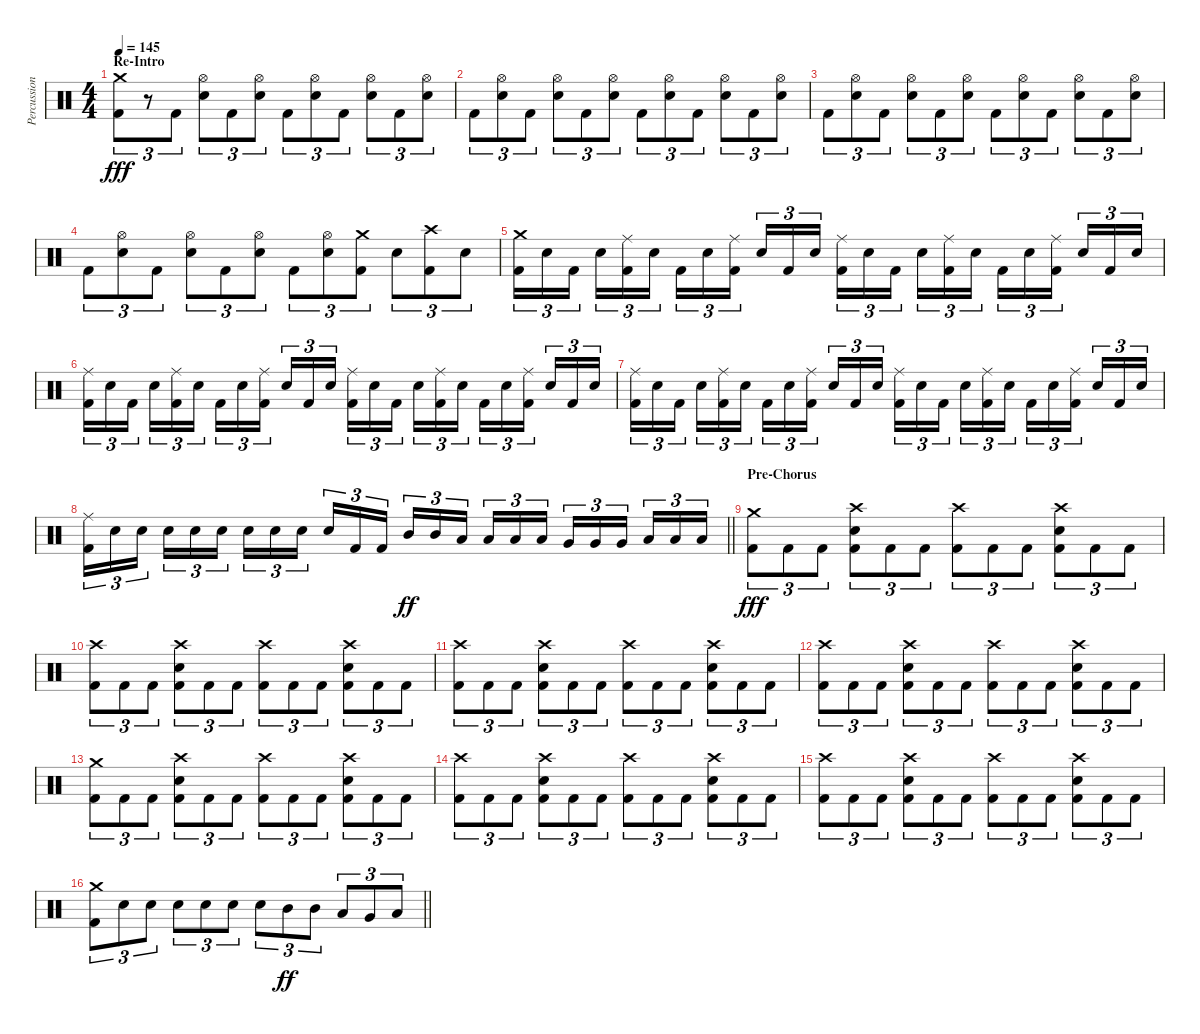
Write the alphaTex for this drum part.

\track ("Percussion" "Percussion") {instrument percussion}
\staff {score}
\articulation defaults
\ts (4 4)
\section ("" "Re-Intro")
\tempo 145
\clef neutral
\ks c
("Crash medium (hit)" "Kick (hit) 2").8{tu (3 2) dy fff} r.8{tu (3 2)} "Kick (hit) 2".8{tu (3 2)} ("Hi-Hat (open)" "Electric Snare (hit)").8{tu (3 2)} "Kick (hit) 2".8{tu (3 2)} ("Hi-Hat (open)" "Electric Snare (hit)").8{tu (3 2)} "Kick (hit) 2".8{tu (3 2)} ("Hi-Hat (open)" "Electric Snare (hit)").8{tu (3 2)} "Kick (hit) 2".8{tu (3 2)} ("Hi-Hat (open)" "Electric Snare (hit)").8{tu (3 2)} "Kick (hit) 2".8{tu (3 2)} ("Hi-Hat (open)" "Electric Snare (hit)").8{tu (3 2)} |
"Kick (hit) 2".8{tu (3 2)} ("Hi-Hat (open)" "Electric Snare (hit)").8{tu (3 2)} "Kick (hit) 2".8{tu (3 2)} ("Hi-Hat (open)" "Electric Snare (hit)").8{tu (3 2)} "Kick (hit) 2".8{tu (3 2)} ("Hi-Hat (open)" "Electric Snare (hit)").8{tu (3 2)} "Kick (hit) 2".8{tu (3 2)} ("Hi-Hat (open)" "Electric Snare (hit)").8{tu (3 2)} "Kick (hit) 2".8{tu (3 2)} ("Hi-Hat (open)" "Electric Snare (hit)").8{tu (3 2)} "Kick (hit) 2".8{tu (3 2)} ("Hi-Hat (open)" "Electric Snare (hit)").8{tu (3 2)} |
"Kick (hit) 2".8{tu (3 2)} ("Hi-Hat (open)" "Electric Snare (hit)").8{tu (3 2)} "Kick (hit) 2".8{tu (3 2)} ("Hi-Hat (open)" "Electric Snare (hit)").8{tu (3 2)} "Kick (hit) 2".8{tu (3 2)} ("Hi-Hat (open)" "Electric Snare (hit)").8{tu (3 2)} "Kick (hit) 2".8{tu (3 2)} ("Hi-Hat (open)" "Electric Snare (hit)").8{tu (3 2)} "Kick (hit) 2".8{tu (3 2)} ("Hi-Hat (open)" "Electric Snare (hit)").8{tu (3 2)} "Kick (hit) 2".8{tu (3 2)} ("Hi-Hat (open)" "Electric Snare (hit)").8{tu (3 2)} |
"Kick (hit) 2".8{tu (3 2)} ("Hi-Hat (open)" "Electric Snare (hit)").8{tu (3 2)} "Kick (hit) 2".8{tu (3 2)} ("Hi-Hat (open)" "Electric Snare (hit)").8{tu (3 2)} "Kick (hit) 2".8{tu (3 2)} ("Hi-Hat (open)" "Electric Snare (hit)").8{tu (3 2)} "Kick (hit) 2".8{tu (3 2)} ("Hi-Hat (open)" "Electric Snare (hit)").8{tu (3 2)} ("Crash medium (hit)" "Kick (hit) 2").8{tu (3 2)} "Electric Snare (hit)".8{tu (3 2)} ("Crash high (hit)" "Kick (hit) 2").8{tu (3 2)} "Electric Snare (hit)".8{tu (3 2)} |
("Crash medium (hit)" "Kick (hit) 2").16{tu (3 2)} "Electric Snare (hit)".16{tu (3 2)} "Kick (hit) 2".16{tu (3 2) beam splitsecondary} "Electric Snare (hit)".16{tu (3 2)} ("Ride (middle)" "Kick (hit) 2").16{tu (3 2)} "Electric Snare (hit)".16{tu (3 2)} "Kick (hit) 2".16{tu (3 2)} "Electric Snare (hit)".16{tu (3 2)} ("Ride (middle)" "Kick (hit) 2").16{tu (3 2) beam splitsecondary} "Electric Snare (hit)".16{tu (3 2)} "Kick (hit) 2".16{tu (3 2)} "Electric Snare (hit)".16{tu (3 2)} ("Ride (middle)" "Kick (hit) 2").16{tu (3 2)} "Electric Snare (hit)".16{tu (3 2)} "Kick (hit) 2".16{tu (3 2) beam splitsecondary} "Electric Snare (hit)".16{tu (3 2)} ("Ride (middle)" "Kick (hit) 2").16{tu (3 2)} "Electric Snare (hit)".16{tu (3 2)} "Kick (hit) 2".16{tu (3 2)} "Electric Snare (hit)".16{tu (3 2)} ("Ride (middle)" "Kick (hit) 2").16{tu (3 2) beam splitsecondary} "Electric Snare (hit)".16{tu (3 2)} "Kick (hit) 2".16{tu (3 2)} "Electric Snare (hit)".16{tu (3 2)} |
("Ride (middle)" "Kick (hit) 2").16{tu (3 2)} "Electric Snare (hit)".16{tu (3 2)} "Kick (hit) 2".16{tu (3 2) beam splitsecondary} "Electric Snare (hit)".16{tu (3 2)} ("Ride (middle)" "Kick (hit) 2").16{tu (3 2)} "Electric Snare (hit)".16{tu (3 2)} "Kick (hit) 2".16{tu (3 2)} "Electric Snare (hit)".16{tu (3 2)} ("Ride (middle)" "Kick (hit) 2").16{tu (3 2) beam splitsecondary} "Electric Snare (hit)".16{tu (3 2)} "Kick (hit) 2".16{tu (3 2)} "Electric Snare (hit)".16{tu (3 2)} ("Ride (middle)" "Kick (hit) 2").16{tu (3 2)} "Electric Snare (hit)".16{tu (3 2)} "Kick (hit) 2".16{tu (3 2) beam splitsecondary} "Electric Snare (hit)".16{tu (3 2)} ("Ride (middle)" "Kick (hit) 2").16{tu (3 2)} "Electric Snare (hit)".16{tu (3 2)} "Kick (hit) 2".16{tu (3 2)} "Electric Snare (hit)".16{tu (3 2)} ("Ride (middle)" "Kick (hit) 2").16{tu (3 2) beam splitsecondary} "Electric Snare (hit)".16{tu (3 2)} "Kick (hit) 2".16{tu (3 2)} "Electric Snare (hit)".16{tu (3 2)} |
("Ride (middle)" "Kick (hit) 2").16{tu (3 2)} "Electric Snare (hit)".16{tu (3 2)} "Kick (hit) 2".16{tu (3 2) beam splitsecondary} "Electric Snare (hit)".16{tu (3 2)} ("Ride (middle)" "Kick (hit) 2").16{tu (3 2)} "Electric Snare (hit)".16{tu (3 2)} "Kick (hit) 2".16{tu (3 2)} "Electric Snare (hit)".16{tu (3 2)} ("Ride (middle)" "Kick (hit) 2").16{tu (3 2) beam splitsecondary} "Electric Snare (hit)".16{tu (3 2)} "Kick (hit) 2".16{tu (3 2)} "Electric Snare (hit)".16{tu (3 2)} ("Ride (middle)" "Kick (hit) 2").16{tu (3 2)} "Electric Snare (hit)".16{tu (3 2)} "Kick (hit) 2".16{tu (3 2) beam splitsecondary} "Electric Snare (hit)".16{tu (3 2)} ("Ride (middle)" "Kick (hit) 2").16{tu (3 2)} "Electric Snare (hit)".16{tu (3 2)} "Kick (hit) 2".16{tu (3 2)} "Electric Snare (hit)".16{tu (3 2)} ("Ride (middle)" "Kick (hit) 2").16{tu (3 2) beam splitsecondary} "Electric Snare (hit)".16{tu (3 2)} "Kick (hit) 2".16{tu (3 2)} "Electric Snare (hit)".16{tu (3 2)} |
\barLineRight lightlight
("Ride (middle)" "Kick (hit) 2").16{tu (3 2)} "Electric Snare (hit)".16{tu (3 2)} "Electric Snare (hit)".16{tu (3 2) beam splitsecondary} "Electric Snare (hit)".16{tu (3 2)} "Electric Snare (hit)".16{tu (3 2)} "Electric Snare (hit)".16{tu (3 2)} "Electric Snare (hit)".16{tu (3 2)} "Electric Snare (hit)".16{tu (3 2)} "Electric Snare (hit)".16{tu (3 2) beam splitsecondary} "Electric Snare (hit)".16{tu (3 2)} "Kick (hit) 2".16{tu (3 2)} "Kick (hit) 2".16{tu (3 2)} "Mid Tom (hit)".16{tu (3 2) dy ff} "Mid Tom (hit)".16{tu (3 2)} "Low Tom (hit)".16{tu (3 2) beam splitsecondary} "Low Tom (hit)".16{tu (3 2)} "Low Tom (hit)".16{tu (3 2)} "Low Tom (hit)".16{tu (3 2)} "Very Low Tom (hit)".16{tu (3 2)} "Very Low Tom (hit)".16{tu (3 2)} "Very Low Tom (hit)".16{tu (3 2) beam splitsecondary} "Low Floor Tom (hit)".16{tu (3 2)} "Low Floor Tom (hit)".16{tu (3 2)} "Low Floor Tom (hit)".16{tu (3 2)} |
\section ("" "Pre-Chorus")
("Crash medium (hit)" "Kick (hit) 2").8{tu (3 2) dy fff} "Kick (hit) 2".8{tu (3 2)} "Kick (hit) 2".8{tu (3 2)} ("Crash high (hit)" "Electric Snare (hit)" "Kick (hit) 2").8{tu (3 2)} "Kick (hit) 2".8{tu (3 2)} "Kick (hit) 2".8{tu (3 2)} ("Crash high (hit)" "Kick (hit) 2").8{tu (3 2)} "Kick (hit) 2".8{tu (3 2)} "Kick (hit) 2".8{tu (3 2)} ("Crash high (hit)" "Electric Snare (hit)" "Kick (hit) 2").8{tu (3 2)} "Kick (hit) 2".8{tu (3 2)} "Kick (hit) 2".8{tu (3 2)} |
("Crash high (hit)" "Kick (hit) 2").8{tu (3 2)} "Kick (hit) 2".8{tu (3 2)} "Kick (hit) 2".8{tu (3 2)} ("Crash high (hit)" "Electric Snare (hit)" "Kick (hit) 2").8{tu (3 2)} "Kick (hit) 2".8{tu (3 2)} "Kick (hit) 2".8{tu (3 2)} ("Crash high (hit)" "Kick (hit) 2").8{tu (3 2)} "Kick (hit) 2".8{tu (3 2)} "Kick (hit) 2".8{tu (3 2)} ("Crash high (hit)" "Electric Snare (hit)" "Kick (hit) 2").8{tu (3 2)} "Kick (hit) 2".8{tu (3 2)} "Kick (hit) 2".8{tu (3 2)} |
("Crash high (hit)" "Kick (hit) 2").8{tu (3 2)} "Kick (hit) 2".8{tu (3 2)} "Kick (hit) 2".8{tu (3 2)} ("Crash high (hit)" "Electric Snare (hit)" "Kick (hit) 2").8{tu (3 2)} "Kick (hit) 2".8{tu (3 2)} "Kick (hit) 2".8{tu (3 2)} ("Crash high (hit)" "Kick (hit) 2").8{tu (3 2)} "Kick (hit) 2".8{tu (3 2)} "Kick (hit) 2".8{tu (3 2)} ("Crash high (hit)" "Electric Snare (hit)" "Kick (hit) 2").8{tu (3 2)} "Kick (hit) 2".8{tu (3 2)} "Kick (hit) 2".8{tu (3 2)} |
("Crash high (hit)" "Kick (hit) 2").8{tu (3 2)} "Kick (hit) 2".8{tu (3 2)} "Kick (hit) 2".8{tu (3 2)} ("Crash high (hit)" "Electric Snare (hit)" "Kick (hit) 2").8{tu (3 2)} "Kick (hit) 2".8{tu (3 2)} "Kick (hit) 2".8{tu (3 2)} ("Crash high (hit)" "Kick (hit) 2").8{tu (3 2)} "Kick (hit) 2".8{tu (3 2)} "Kick (hit) 2".8{tu (3 2)} ("Crash high (hit)" "Electric Snare (hit)" "Kick (hit) 2").8{tu (3 2)} "Kick (hit) 2".8{tu (3 2)} "Kick (hit) 2".8{tu (3 2)} |
("Crash medium (hit)" "Kick (hit) 2").8{tu (3 2)} "Kick (hit) 2".8{tu (3 2)} "Kick (hit) 2".8{tu (3 2)} ("Crash high (hit)" "Electric Snare (hit)" "Kick (hit) 2").8{tu (3 2)} "Kick (hit) 2".8{tu (3 2)} "Kick (hit) 2".8{tu (3 2)} ("Crash high (hit)" "Kick (hit) 2").8{tu (3 2)} "Kick (hit) 2".8{tu (3 2)} "Kick (hit) 2".8{tu (3 2)} ("Crash high (hit)" "Electric Snare (hit)" "Kick (hit) 2").8{tu (3 2)} "Kick (hit) 2".8{tu (3 2)} "Kick (hit) 2".8{tu (3 2)} |
("Crash high (hit)" "Kick (hit) 2").8{tu (3 2)} "Kick (hit) 2".8{tu (3 2)} "Kick (hit) 2".8{tu (3 2)} ("Crash high (hit)" "Electric Snare (hit)" "Kick (hit) 2").8{tu (3 2)} "Kick (hit) 2".8{tu (3 2)} "Kick (hit) 2".8{tu (3 2)} ("Crash high (hit)" "Kick (hit) 2").8{tu (3 2)} "Kick (hit) 2".8{tu (3 2)} "Kick (hit) 2".8{tu (3 2)} ("Crash high (hit)" "Electric Snare (hit)" "Kick (hit) 2").8{tu (3 2)} "Kick (hit) 2".8{tu (3 2)} "Kick (hit) 2".8{tu (3 2)} |
("Crash high (hit)" "Kick (hit) 2").8{tu (3 2)} "Kick (hit) 2".8{tu (3 2)} "Kick (hit) 2".8{tu (3 2)} ("Crash high (hit)" "Electric Snare (hit)" "Kick (hit) 2").8{tu (3 2)} "Kick (hit) 2".8{tu (3 2)} "Kick (hit) 2".8{tu (3 2)} ("Crash high (hit)" "Kick (hit) 2").8{tu (3 2)} "Kick (hit) 2".8{tu (3 2)} "Kick (hit) 2".8{tu (3 2)} ("Crash high (hit)" "Electric Snare (hit)" "Kick (hit) 2").8{tu (3 2)} "Kick (hit) 2".8{tu (3 2)} "Kick (hit) 2".8{tu (3 2)} |
\barLineRight lightlight
("Crash medium (hit)" "Kick (hit) 2").8{tu (3 2)} "Electric Snare (hit)".8{tu (3 2)} "Electric Snare (hit)".8{tu (3 2)} "Electric Snare (hit)".8{tu (3 2)} "Electric Snare (hit)".8{tu (3 2)} "Electric Snare (hit)".8{tu (3 2)} "Electric Snare (hit)".8{tu (3 2)} "Mid Tom (hit)".8{tu (3 2) dy ff} "Mid Tom (hit)".8{tu (3 2)} "Low Tom (hit)".8{tu (3 2)} "Very Low Tom (hit)".8{tu (3 2)} "Low Floor Tom (hit)".8{tu (3 2)}
